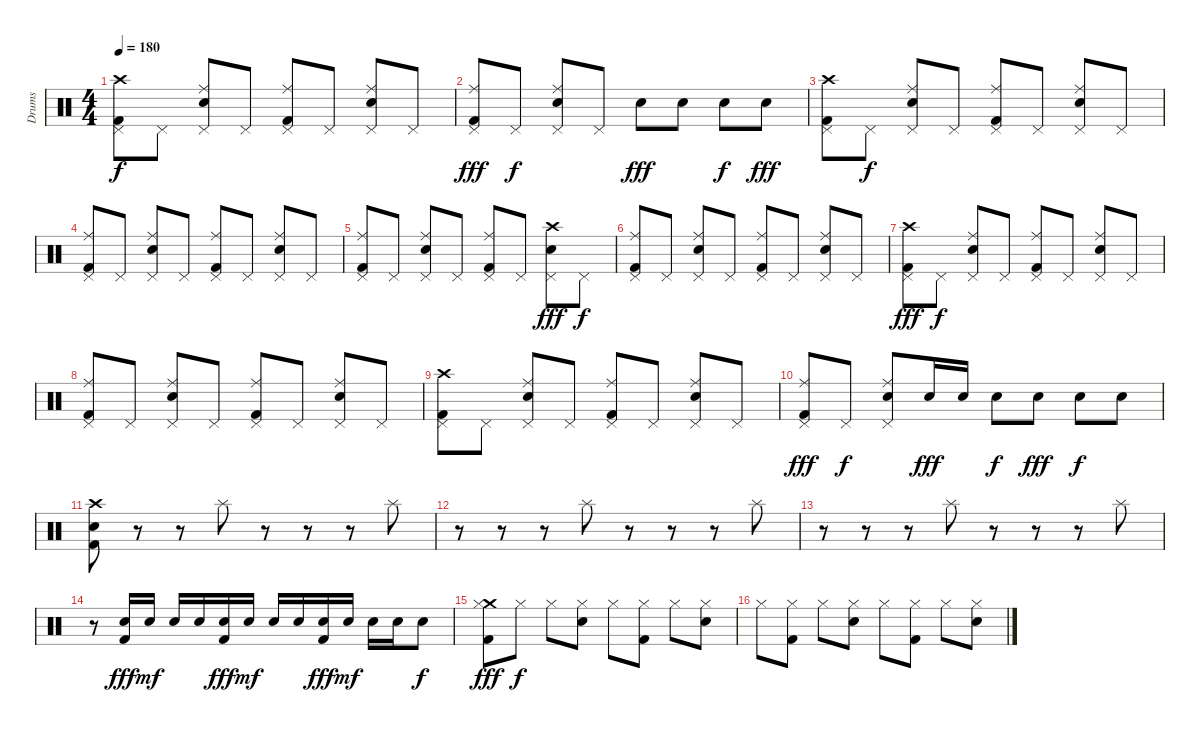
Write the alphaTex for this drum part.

\track ("Drums" "Drums") {instrument percussion}
\staff {score}
\articulation defaults
\ts (4 4)
\tempo 180
\clef neutral
\ks c
("Crash high (hit)" "Pedal Hi-Hat (hit)" "Kick (hit) 2").8{dy f} "Pedal Hi-Hat (hit)".8 ("Ride (middle)" "Pedal Hi-Hat (hit)" "Electric Snare (hit)").8 "Pedal Hi-Hat (hit)".8 ("Ride (middle)" "Pedal Hi-Hat (hit)" "Kick (hit) 2").8 "Pedal Hi-Hat (hit)".8 ("Ride (middle)" "Pedal Hi-Hat (hit)" "Electric Snare (hit)").8 "Pedal Hi-Hat (hit)".8 |
("Ride (middle)" "Pedal Hi-Hat (hit)" "Kick (hit) 2").8{dy fff} "Pedal Hi-Hat (hit)".8{dy f} ("Ride (middle)" "Pedal Hi-Hat (hit)" "Electric Snare (hit)").8 "Pedal Hi-Hat (hit)".8 "Electric Snare (hit)".8{dy fff} "Electric Snare (hit)".8 "Electric Snare (hit)".8{dy f} "Electric Snare (hit)".8{dy fff} |
("Crash high (hit)" "Pedal Hi-Hat (hit)" "Kick (hit) 2").8 "Pedal Hi-Hat (hit)".8{dy f} ("Ride (middle)" "Pedal Hi-Hat (hit)" "Electric Snare (hit)").8 "Pedal Hi-Hat (hit)".8 ("Ride (middle)" "Pedal Hi-Hat (hit)" "Kick (hit) 2").8 "Pedal Hi-Hat (hit)".8 ("Ride (middle)" "Pedal Hi-Hat (hit)" "Electric Snare (hit)").8 "Pedal Hi-Hat (hit)".8 |
("Ride (middle)" "Pedal Hi-Hat (hit)" "Kick (hit) 2").8 "Pedal Hi-Hat (hit)".8 ("Ride (middle)" "Pedal Hi-Hat (hit)" "Electric Snare (hit)").8 "Pedal Hi-Hat (hit)".8 ("Ride (middle)" "Pedal Hi-Hat (hit)" "Kick (hit) 2").8 "Pedal Hi-Hat (hit)".8 ("Ride (middle)" "Pedal Hi-Hat (hit)" "Electric Snare (hit)").8 "Pedal Hi-Hat (hit)".8 |
("Ride (middle)" "Pedal Hi-Hat (hit)" "Kick (hit) 2").8 "Pedal Hi-Hat (hit)".8 ("Ride (middle)" "Pedal Hi-Hat (hit)" "Electric Snare (hit)").8 "Pedal Hi-Hat (hit)".8 ("Ride (middle)" "Pedal Hi-Hat (hit)" "Kick (hit) 2").8 "Pedal Hi-Hat (hit)".8 ("Crash high (hit)" "Pedal Hi-Hat (hit)" "Electric Snare (hit)").8{dy fff} "Pedal Hi-Hat (hit)".8{dy f} |
("Ride (middle)" "Pedal Hi-Hat (hit)" "Kick (hit) 2").8 "Pedal Hi-Hat (hit)".8 ("Ride (middle)" "Pedal Hi-Hat (hit)" "Electric Snare (hit)").8 "Pedal Hi-Hat (hit)".8 ("Ride (middle)" "Pedal Hi-Hat (hit)" "Kick (hit) 2").8 "Pedal Hi-Hat (hit)".8 ("Ride (middle)" "Pedal Hi-Hat (hit)" "Electric Snare (hit)").8 "Pedal Hi-Hat (hit)".8 |
("Crash high (hit)" "Pedal Hi-Hat (hit)" "Kick (hit) 2").8{dy fff} "Pedal Hi-Hat (hit)".8{dy f} ("Ride (middle)" "Pedal Hi-Hat (hit)" "Electric Snare (hit)").8 "Pedal Hi-Hat (hit)".8 ("Ride (middle)" "Pedal Hi-Hat (hit)" "Kick (hit) 2").8 "Pedal Hi-Hat (hit)".8 ("Ride (middle)" "Pedal Hi-Hat (hit)" "Electric Snare (hit)").8 "Pedal Hi-Hat (hit)".8 |
("Ride (middle)" "Pedal Hi-Hat (hit)" "Kick (hit) 2").8 "Pedal Hi-Hat (hit)".8 ("Ride (middle)" "Pedal Hi-Hat (hit)" "Electric Snare (hit)").8 "Pedal Hi-Hat (hit)".8 ("Ride (middle)" "Pedal Hi-Hat (hit)" "Kick (hit) 2").8 "Pedal Hi-Hat (hit)".8 ("Ride (middle)" "Pedal Hi-Hat (hit)" "Electric Snare (hit)").8 "Pedal Hi-Hat (hit)".8 |
("Crash high (hit)" "Pedal Hi-Hat (hit)" "Kick (hit) 2").8 "Pedal Hi-Hat (hit)".8 ("Ride (middle)" "Pedal Hi-Hat (hit)" "Electric Snare (hit)").8 "Pedal Hi-Hat (hit)".8 ("Ride (middle)" "Pedal Hi-Hat (hit)" "Kick (hit) 2").8 "Pedal Hi-Hat (hit)".8 ("Ride (middle)" "Pedal Hi-Hat (hit)" "Electric Snare (hit)").8 "Pedal Hi-Hat (hit)".8 |
("Ride (middle)" "Pedal Hi-Hat (hit)" "Kick (hit) 2").8{dy fff} "Pedal Hi-Hat (hit)".8{dy f} ("Ride (middle)" "Pedal Hi-Hat (hit)" "Electric Snare (hit)").8 "Electric Snare (hit)".16{dy fff} "Electric Snare (hit)".16 "Electric Snare (hit)".8{dy f} "Electric Snare (hit)".8{dy fff} "Electric Snare (hit)".8{dy f} "Electric Snare (hit)".8 |
("Crash high (hit)" "Electric Snare (hit)" "Kick (hit) 2").8 r.8 r.8 "Splash (hit)".8 r.8 r.8 r.8 "Splash (hit)".8 |
r.8 r.8 r.8 "Splash (hit)".8 r.8 r.8 r.8 "Splash (hit)".8 |
r.8 r.8 r.8 "Splash (hit)".8 r.8 r.8 r.8 "Splash (hit)".8 |
r.8 ("Electric Snare (hit)" "Kick (hit) 2").16{dy fff} "Electric Snare (hit)".16{dy mf} "Electric Snare (hit)".16 "Electric Snare (hit)".16 ("Electric Snare (hit)" "Kick (hit) 2").16{dy fff} "Electric Snare (hit)".16{dy mf} "Electric Snare (hit)".16 "Electric Snare (hit)".16 ("Electric Snare (hit)" "Kick (hit) 2").16{dy fff} "Electric Snare (hit)".16{dy mf} "Electric Snare (hit)".16 "Electric Snare (hit)".16 "Electric Snare (hit)".8{dy f} |
("Crash medium (hit)" "Hi-Hat (closed)" "Kick (hit) 2").8{dy fff} "Hi-Hat (closed)".8{dy f} "Hi-Hat (closed)".8 ("Hi-Hat (closed)" "Electric Snare (hit)").8 "Hi-Hat (closed)".8 ("Hi-Hat (closed)" "Kick (hit) 2").8 "Hi-Hat (closed)".8 ("Hi-Hat (closed)" "Electric Snare (hit)").8 |
"Hi-Hat (closed)".8 ("Hi-Hat (closed)" "Kick (hit) 2").8 "Hi-Hat (closed)".8 ("Hi-Hat (closed)" "Electric Snare (hit)").8 "Hi-Hat (closed)".8 ("Hi-Hat (closed)" "Kick (hit) 2").8 "Hi-Hat (closed)".8 ("Hi-Hat (closed)" "Electric Snare (hit)").8
